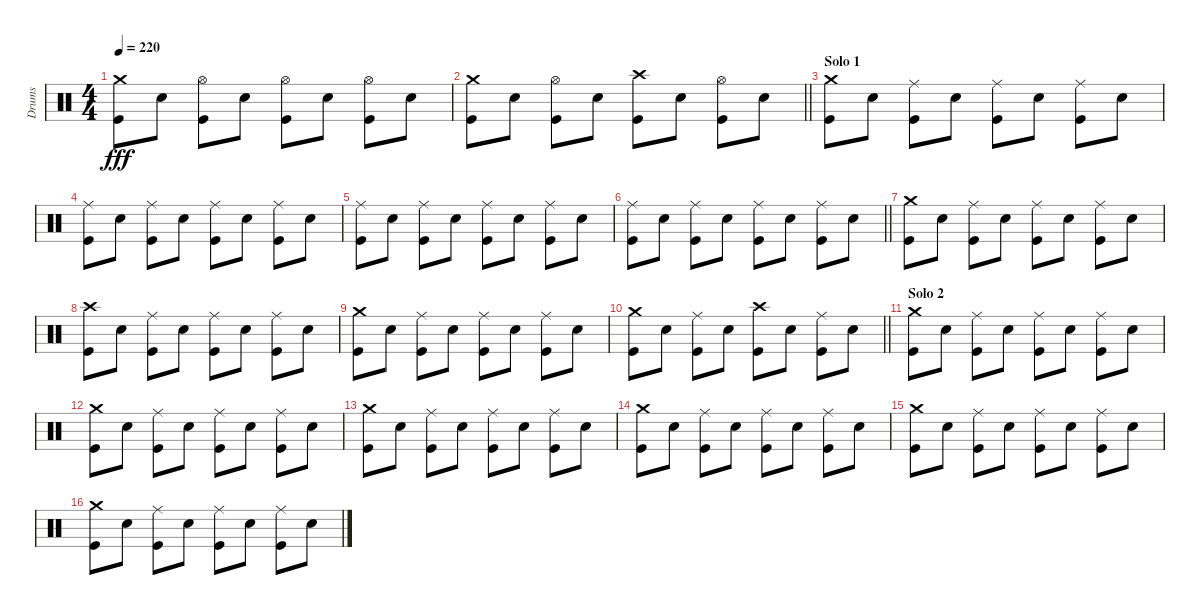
\track ("Drums" "Drums") {instrument percussion}
\staff {score}
\articulation defaults
\ts (4 4)
\tempo 220
\clef neutral
\ks c
("Crash medium (hit)" "Kick (hit)").8{dy fff} "Electric Snare (hit)".8 ("Hi-Hat (open)" "Kick (hit)").8 "Electric Snare (hit)".8 ("Hi-Hat (open)" "Kick (hit)").8 "Electric Snare (hit)".8 ("Hi-Hat (open)" "Kick (hit)").8 "Electric Snare (hit)".8 |
\barLineRight lightlight
("Crash medium (hit)" "Kick (hit)").8 "Electric Snare (hit)".8 ("Hi-Hat (open)" "Kick (hit)").8 "Electric Snare (hit)".8 ("Crash high (hit)" "Kick (hit)").8 "Electric Snare (hit)".8 ("Hi-Hat (open)" "Kick (hit)").8 "Electric Snare (hit)".8 |
\section ("" "Solo 1")
("Crash medium (hit)" "Kick (hit)").8 "Electric Snare (hit)".8 ("Ride (middle)" "Kick (hit)").8 "Electric Snare (hit)".8 ("Ride (middle)" "Kick (hit)").8 "Electric Snare (hit)".8 ("Ride (middle)" "Kick (hit)").8 "Electric Snare (hit)".8 |
("Ride (middle)" "Kick (hit)").8 "Electric Snare (hit)".8 ("Ride (middle)" "Kick (hit)").8 "Electric Snare (hit)".8 ("Ride (middle)" "Kick (hit)").8 "Electric Snare (hit)".8 ("Ride (middle)" "Kick (hit)").8 "Electric Snare (hit)".8 |
("Ride (middle)" "Kick (hit)").8 "Electric Snare (hit)".8 ("Ride (middle)" "Kick (hit)").8 "Electric Snare (hit)".8 ("Ride (middle)" "Kick (hit)").8 "Electric Snare (hit)".8 ("Ride (middle)" "Kick (hit)").8 "Electric Snare (hit)".8 |
\barLineRight lightlight
("Ride (middle)" "Kick (hit)").8 "Electric Snare (hit)".8 ("Ride (middle)" "Kick (hit)").8 "Electric Snare (hit)".8 ("Ride (middle)" "Kick (hit)").8 "Electric Snare (hit)".8 ("Ride (middle)" "Kick (hit)").8 "Electric Snare (hit)".8 |
("Crash medium (hit)" "Kick (hit)").8 "Electric Snare (hit)".8 ("Ride (middle)" "Kick (hit)").8 "Electric Snare (hit)".8 ("Ride (middle)" "Kick (hit)").8 "Electric Snare (hit)".8 ("Ride (middle)" "Kick (hit)").8 "Electric Snare (hit)".8 |
("Crash high (hit)" "Kick (hit)").8 "Electric Snare (hit)".8 ("Ride (middle)" "Kick (hit)").8 "Electric Snare (hit)".8 ("Ride (middle)" "Kick (hit)").8 "Electric Snare (hit)".8 ("Ride (middle)" "Kick (hit)").8 "Electric Snare (hit)".8 |
("Crash medium (hit)" "Kick (hit)").8 "Electric Snare (hit)".8 ("Ride (middle)" "Kick (hit)").8 "Electric Snare (hit)".8 ("Ride (middle)" "Kick (hit)").8 "Electric Snare (hit)".8 ("Ride (middle)" "Kick (hit)").8 "Electric Snare (hit)".8 |
\barLineRight lightlight
("Crash medium (hit)" "Kick (hit)").8 "Electric Snare (hit)".8 ("Ride (middle)" "Kick (hit)").8 "Electric Snare (hit)".8 ("Crash high (hit)" "Kick (hit)").8 "Electric Snare (hit)".8 ("Ride (middle)" "Kick (hit)").8 "Electric Snare (hit)".8 |
\section ("" "Solo 2")
("Crash medium (hit)" "Kick (hit)").8 "Electric Snare (hit)".8 ("Ride (middle)" "Kick (hit)").8 "Electric Snare (hit)".8 ("Ride (middle)" "Kick (hit)").8 "Electric Snare (hit)".8 ("Ride (middle)" "Kick (hit)").8 "Electric Snare (hit)".8 |
("Crash medium (hit)" "Kick (hit)").8 "Electric Snare (hit)".8 ("Ride (middle)" "Kick (hit)").8 "Electric Snare (hit)".8 ("Ride (middle)" "Kick (hit)").8 "Electric Snare (hit)".8 ("Ride (middle)" "Kick (hit)").8 "Electric Snare (hit)".8 |
("Crash medium (hit)" "Kick (hit)").8 "Electric Snare (hit)".8 ("Ride (middle)" "Kick (hit)").8 "Electric Snare (hit)".8 ("Ride (middle)" "Kick (hit)").8 "Electric Snare (hit)".8 ("Ride (middle)" "Kick (hit)").8 "Electric Snare (hit)".8 |
("Crash medium (hit)" "Kick (hit)").8 "Electric Snare (hit)".8 ("Ride (middle)" "Kick (hit)").8 "Electric Snare (hit)".8 ("Ride (middle)" "Kick (hit)").8 "Electric Snare (hit)".8 ("Ride (middle)" "Kick (hit)").8 "Electric Snare (hit)".8 |
("Crash medium (hit)" "Kick (hit)").8 "Electric Snare (hit)".8 ("Ride (middle)" "Kick (hit)").8 "Electric Snare (hit)".8 ("Ride (middle)" "Kick (hit)").8 "Electric Snare (hit)".8 ("Ride (middle)" "Kick (hit)").8 "Electric Snare (hit)".8 |
("Crash medium (hit)" "Kick (hit)").8 "Electric Snare (hit)".8 ("Ride (middle)" "Kick (hit)").8 "Electric Snare (hit)".8 ("Ride (middle)" "Kick (hit)").8 "Electric Snare (hit)".8 ("Ride (middle)" "Kick (hit)").8 "Electric Snare (hit)".8
